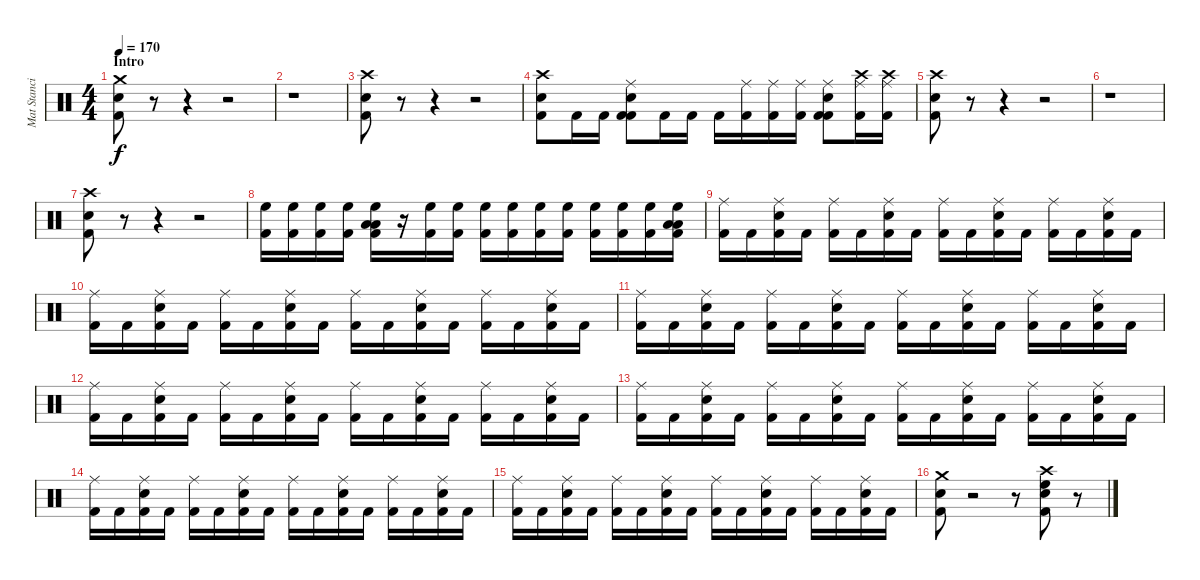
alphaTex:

\track ("Mat Stancioiu" "Mat Stanci") {instrument percussion}
\staff {score}
\articulation defaults
\ts (4 4)
\section ("" "Intro")
\tempo 170
\clef neutral
\ks c
("Crash medium (hit)" "Kick (hit) 2" "Snare (hit)").8{dy f} r.8 r.4 r.2 |
r.1 |
("Crash high (hit)" "Kick (hit) 2" "Snare (hit)").8 r.8 r.4 r.2 |
("Crash high (hit)" "Kick (hit) 2" "Snare (hit)").8 "Kick (hit) 2".16 "Kick (hit) 2".16 ("Electric Snare (hit)" "Kick (hit) 2" "Kick (hit) 2" "Ride (middle)").8 "Kick (hit) 2".16 "Kick (hit) 2".16 "Kick (hit) 2".16 ("Kick (hit) 2" "Ride (middle)").16 ("Kick (hit) 2" "Ride (middle)").16 ("Kick (hit) 2" "Ride (middle)").16 ("Electric Snare (hit)" "Kick (hit) 2" "Kick (hit) 2" "Ride (middle)").8 ("Kick (hit) 2" "Ride (middle)" "Crash high (hit)").16 ("Kick (hit) 2" "Ride (middle)" "Crash high (hit)").16 |
("Crash high (hit)" "Kick (hit) 2" "Snare (hit)").8 r.8 r.4 r.2 |
r.1 |
("Crash high (hit)" "Kick (hit) 2" "Snare (hit)").8 r.8 r.4 r.2 |
("Kick (hit) 2" "High Floor Tom (hit)").16 ("Kick (hit) 2" "High Floor Tom (hit)").16 ("Kick (hit) 2" "High Floor Tom (hit)").16 ("Kick (hit) 2" "High Floor Tom (hit)").16 ("Kick (hit) 2" "High Floor Tom (hit)" "Low Tom (hit)" "Low Floor Tom (hit)").16 r.16 ("Kick (hit) 2" "High Floor Tom (hit)").16 ("Kick (hit) 2" "High Floor Tom (hit)").16 ("Kick (hit) 2" "High Floor Tom (hit)").16 ("Kick (hit) 2" "High Floor Tom (hit)").16 ("Kick (hit) 2" "High Floor Tom (hit)").16 ("Kick (hit) 2" "High Floor Tom (hit)").16 ("Kick (hit) 2" "High Floor Tom (hit)").16 ("Kick (hit) 2" "High Floor Tom (hit)").16 ("Kick (hit) 2" "High Floor Tom (hit)").16 ("Kick (hit) 2" "High Floor Tom (hit)" "Low Tom (hit)" "Low Floor Tom (hit)").16 |
("Kick (hit) 2" "Ride (middle)").16 "Kick (hit) 2".16 ("Electric Snare (hit)" "Kick (hit) 2" "Ride (middle)").16 "Kick (hit) 2".16 ("Kick (hit) 2" "Ride (middle)").16 "Kick (hit) 2".16 ("Electric Snare (hit)" "Kick (hit) 2" "Ride (middle)").16 "Kick (hit) 2".16 ("Kick (hit) 2" "Ride (middle)").16 "Kick (hit) 2".16 ("Electric Snare (hit)" "Kick (hit) 2" "Ride (middle)").16 "Kick (hit) 2".16 ("Kick (hit) 2" "Ride (middle)").16 "Kick (hit) 2".16 ("Electric Snare (hit)" "Kick (hit) 2" "Ride (middle)").16 "Kick (hit) 2".16 |
("Kick (hit) 2" "Ride (middle)").16 "Kick (hit) 2".16 ("Electric Snare (hit)" "Kick (hit) 2" "Ride (middle)").16 "Kick (hit) 2".16 ("Kick (hit) 2" "Ride (middle)").16 "Kick (hit) 2".16 ("Electric Snare (hit)" "Kick (hit) 2" "Ride (middle)").16 "Kick (hit) 2".16 ("Kick (hit) 2" "Ride (middle)").16 "Kick (hit) 2".16 ("Electric Snare (hit)" "Kick (hit) 2" "Ride (middle)").16 "Kick (hit) 2".16 ("Kick (hit) 2" "Ride (middle)").16 "Kick (hit) 2".16 ("Electric Snare (hit)" "Kick (hit) 2" "Ride (middle)").16 "Kick (hit) 2".16 |
("Kick (hit) 2" "Ride (middle)").16 "Kick (hit) 2".16 ("Electric Snare (hit)" "Kick (hit) 2" "Ride (middle)").16 "Kick (hit) 2".16 ("Kick (hit) 2" "Ride (middle)").16 "Kick (hit) 2".16 ("Electric Snare (hit)" "Kick (hit) 2" "Ride (middle)").16 "Kick (hit) 2".16 ("Kick (hit) 2" "Ride (middle)").16 "Kick (hit) 2".16 ("Electric Snare (hit)" "Kick (hit) 2" "Ride (middle)").16 "Kick (hit) 2".16 ("Kick (hit) 2" "Ride (middle)").16 "Kick (hit) 2".16 ("Electric Snare (hit)" "Kick (hit) 2" "Ride (middle)").16 "Kick (hit) 2".16 |
("Kick (hit) 2" "Ride (middle)").16 "Kick (hit) 2".16 ("Electric Snare (hit)" "Kick (hit) 2" "Ride (middle)").16 "Kick (hit) 2".16 ("Kick (hit) 2" "Ride (middle)").16 "Kick (hit) 2".16 ("Electric Snare (hit)" "Kick (hit) 2" "Ride (middle)").16 "Kick (hit) 2".16 ("Kick (hit) 2" "Ride (middle)").16 "Kick (hit) 2".16 ("Electric Snare (hit)" "Kick (hit) 2" "Ride (middle)").16 "Kick (hit) 2".16 ("Kick (hit) 2" "Ride (middle)").16 "Kick (hit) 2".16 ("Electric Snare (hit)" "Kick (hit) 2" "Ride (middle)").16 "Kick (hit) 2".16 |
("Kick (hit) 2" "Ride (middle)").16 "Kick (hit) 2".16 ("Electric Snare (hit)" "Kick (hit) 2" "Ride (middle)").16 "Kick (hit) 2".16 ("Kick (hit) 2" "Ride (middle)").16 "Kick (hit) 2".16 ("Electric Snare (hit)" "Kick (hit) 2" "Ride (middle)").16 "Kick (hit) 2".16 ("Kick (hit) 2" "Ride (middle)").16 "Kick (hit) 2".16 ("Electric Snare (hit)" "Kick (hit) 2" "Ride (middle)").16 "Kick (hit) 2".16 ("Kick (hit) 2" "Ride (middle)").16 "Kick (hit) 2".16 ("Electric Snare (hit)" "Kick (hit) 2" "Ride (middle)").16 "Kick (hit) 2".16 |
("Kick (hit) 2" "Ride (middle)").16 "Kick (hit) 2".16 ("Electric Snare (hit)" "Kick (hit) 2" "Ride (middle)").16 "Kick (hit) 2".16 ("Kick (hit) 2" "Ride (middle)").16 "Kick (hit) 2".16 ("Electric Snare (hit)" "Kick (hit) 2" "Ride (middle)").16 "Kick (hit) 2".16 ("Kick (hit) 2" "Ride (middle)").16 "Kick (hit) 2".16 ("Electric Snare (hit)" "Kick (hit) 2" "Ride (middle)").16 "Kick (hit) 2".16 ("Kick (hit) 2" "Ride (middle)").16 "Kick (hit) 2".16 ("Electric Snare (hit)" "Kick (hit) 2" "Ride (middle)").16 "Kick (hit) 2".16 |
("Kick (hit) 2" "Ride (middle)").16 "Kick (hit) 2".16 ("Electric Snare (hit)" "Kick (hit) 2" "Ride (middle)").16 "Kick (hit) 2".16 ("Kick (hit) 2" "Ride (middle)").16 "Kick (hit) 2".16 ("Electric Snare (hit)" "Kick (hit) 2" "Ride (middle)").16 "Kick (hit) 2".16 ("Kick (hit) 2" "Ride (middle)").16 "Kick (hit) 2".16 ("Electric Snare (hit)" "Kick (hit) 2" "Ride (middle)").16 "Kick (hit) 2".16 ("Kick (hit) 2" "Ride (middle)").16 "Kick (hit) 2".16 ("Electric Snare (hit)" "Kick (hit) 2" "Ride (middle)").16 "Kick (hit) 2".16 |
("Crash medium (hit)" "Kick (hit) 2" "Snare (hit)").8 r.2 r.8 ("Crash high (hit)" "High Floor Tom (hit)" "Kick (hit) 2" "Electric Snare (hit)").8 r.8
